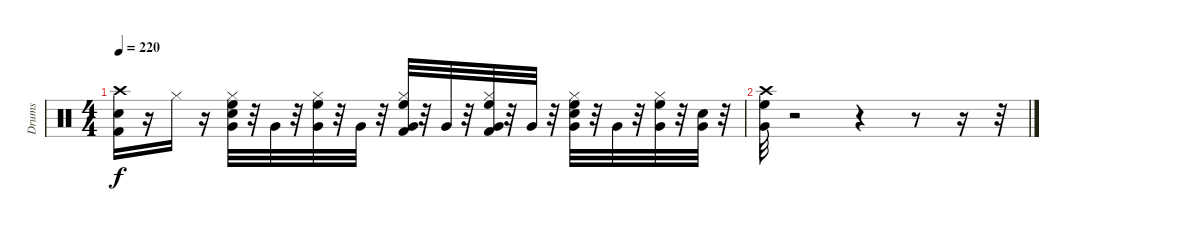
\track ("Drums" "Drums") {instrument percussion}
\staff {score}
\articulation defaults
\ts (4 4)
\tempo 220
\clef neutral
\ks c
("Crash high (hit)" "Snare (hit) 2" "Kick (hit) 2").16{dy f} r.16 "Hi-Hat (closed)".16 r.16 ("High Floor Tom (hit)" "Very Low Tom (hit)" "Hi-Hat (closed)" "Snare (hit) 2").32 r.32 "Very Low Tom (hit)".32 r.32 ("High Floor Tom (hit)" "Very Low Tom (hit)" "Hi-Hat (closed)").32 r.32 "Very Low Tom (hit)".32 r.32 ("High Floor Tom (hit)" "Very Low Tom (hit)" "Hi-Hat (closed)" "Kick (hit) 2").32 r.32 "Very Low Tom (hit)".32 r.32 ("High Floor Tom (hit)" "Very Low Tom (hit)" "Hi-Hat (closed)" "Kick (hit) 2").32 r.32 "Very Low Tom (hit)".32 r.32 ("High Floor Tom (hit)" "Very Low Tom (hit)" "Hi-Hat (closed)" "Snare (hit) 2").32 r.32 "Very Low Tom (hit)".32 r.32 ("High Floor Tom (hit)" "Very Low Tom (hit)" "Hi-Hat (closed)").32 r.32 ("Very Low Tom (hit)" "Snare (hit) 2").32 r.32 |
("High Floor Tom (hit)" "Crash high (hit)" "Very Low Tom (hit)").32 r.2 r.4 r.8 r.16 r.32
